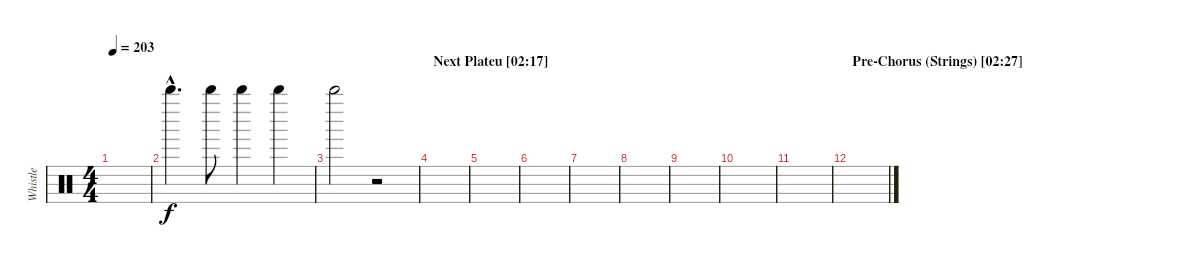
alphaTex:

\track ("Whistle" "Whistle") {instrument percussion}
\staff {score}
\articulation defaults
\ts (4 4)
\tempo 203
\clef neutral
\ks c
|
"Whistle high (hit)"{hac}.4{d} "Whistle high (hit)".8 "Whistle high (hit)".4 "Whistle high (hit)".4 |
"Whistle high (hit)".2 r.2 |
\section ("" "Next Plateu [02:17]")
|
|
|
|
|
|
|
|
\section ("" "Pre-Chorus (Strings) [02:27]")
